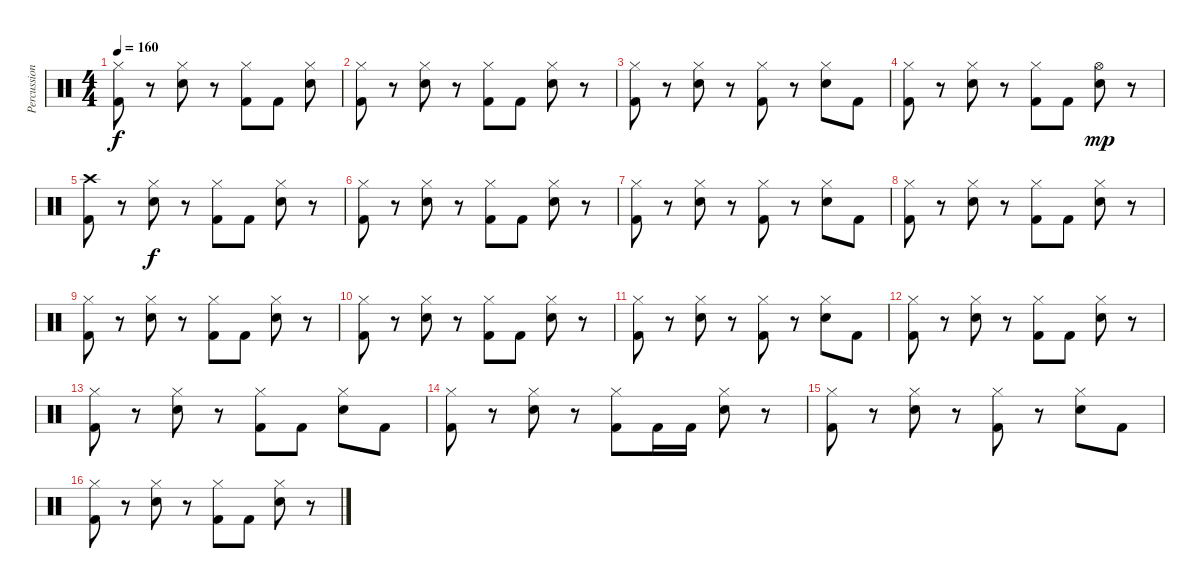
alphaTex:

\track ("Percussion" "Percussion") {instrument percussion}
\staff {score}
\articulation defaults
\ts (4 4)
\tempo 160
\clef neutral
\ks c
("Hi-Hat (closed)" "Kick (hit) 2").8{dy f} r.8 ("Hi-Hat (closed)" "Snare (hit) 2").8 r.8 ("Hi-Hat (closed)" "Kick (hit) 2").8 "Kick (hit) 2".8 ("Hi-Hat (closed)" "Snare (hit) 2").8 |
("Hi-Hat (closed)" "Kick (hit) 2").8 r.8 ("Hi-Hat (closed)" "Snare (hit) 2").8 r.8 ("Hi-Hat (closed)" "Kick (hit) 2").8 "Kick (hit) 2".8 ("Hi-Hat (closed)" "Snare (hit) 2").8 r.8 |
("Hi-Hat (closed)" "Kick (hit) 2").8 r.8 ("Hi-Hat (closed)" "Snare (hit) 2").8 r.8 ("Hi-Hat (closed)" "Kick (hit) 2").8 r.8 ("Hi-Hat (closed)" "Snare (hit) 2").8 "Kick (hit) 2".8 |
("Hi-Hat (closed)" "Kick (hit) 2").8 r.8 ("Hi-Hat (closed)" "Snare (hit) 2").8 r.8 ("Hi-Hat (closed)" "Kick (hit) 2").8 "Kick (hit) 2".8 ("Hi-Hat (open)" "Snare (hit) 2").8{dy mp} r.8 |
("Crash high (hit)" "Kick (hit) 2").8 r.8 ("Hi-Hat (closed)" "Snare (hit) 2").8{dy f} r.8 ("Hi-Hat (closed)" "Kick (hit) 2").8 "Kick (hit) 2".8 ("Hi-Hat (closed)" "Snare (hit) 2").8 r.8 |
("Hi-Hat (closed)" "Kick (hit) 2").8 r.8 ("Hi-Hat (closed)" "Snare (hit) 2").8 r.8 ("Hi-Hat (closed)" "Kick (hit) 2").8 "Kick (hit) 2".8 ("Hi-Hat (closed)" "Snare (hit) 2").8 r.8 |
("Hi-Hat (closed)" "Kick (hit) 2").8 r.8 ("Hi-Hat (closed)" "Snare (hit) 2").8 r.8 ("Hi-Hat (closed)" "Kick (hit) 2").8 r.8 ("Hi-Hat (closed)" "Snare (hit) 2").8 "Kick (hit) 2".8 |
("Hi-Hat (closed)" "Kick (hit) 2").8 r.8 ("Hi-Hat (closed)" "Snare (hit) 2").8 r.8 ("Hi-Hat (closed)" "Kick (hit) 2").8 "Kick (hit) 2".8 ("Hi-Hat (closed)" "Snare (hit) 2").8 r.8 |
("Hi-Hat (closed)" "Kick (hit) 2").8 r.8 ("Hi-Hat (closed)" "Snare (hit) 2").8 r.8 ("Hi-Hat (closed)" "Kick (hit) 2").8 "Kick (hit) 2".8 ("Hi-Hat (closed)" "Snare (hit) 2").8 r.8 |
("Hi-Hat (closed)" "Kick (hit) 2").8 r.8 ("Hi-Hat (closed)" "Snare (hit) 2").8 r.8 ("Hi-Hat (closed)" "Kick (hit) 2").8 "Kick (hit) 2".8 ("Hi-Hat (closed)" "Snare (hit) 2").8 r.8 |
("Hi-Hat (closed)" "Kick (hit) 2").8 r.8 ("Hi-Hat (closed)" "Snare (hit) 2").8 r.8 ("Hi-Hat (closed)" "Kick (hit) 2").8 r.8 ("Hi-Hat (closed)" "Snare (hit) 2").8 "Kick (hit) 2".8 |
("Hi-Hat (closed)" "Kick (hit) 2").8 r.8 ("Hi-Hat (closed)" "Snare (hit) 2").8 r.8 ("Hi-Hat (closed)" "Kick (hit) 2").8 "Kick (hit) 2".8 ("Hi-Hat (closed)" "Snare (hit) 2").8 r.8 |
("Hi-Hat (closed)" "Kick (hit) 2").8 r.8 ("Hi-Hat (closed)" "Snare (hit) 2").8 r.8 ("Hi-Hat (closed)" "Kick (hit) 2").8 "Kick (hit) 2".8 ("Hi-Hat (closed)" "Snare (hit) 2").8 "Kick (hit) 2".8 |
("Hi-Hat (closed)" "Kick (hit) 2").8 r.8 ("Hi-Hat (closed)" "Snare (hit) 2").8 r.8 ("Hi-Hat (closed)" "Kick (hit) 2").8 "Kick (hit) 2".16 "Kick (hit) 2".16 ("Hi-Hat (closed)" "Snare (hit) 2").8 r.8 |
("Hi-Hat (closed)" "Kick (hit) 2").8 r.8 ("Hi-Hat (closed)" "Snare (hit) 2").8 r.8 ("Hi-Hat (closed)" "Kick (hit) 2").8 r.8 ("Hi-Hat (closed)" "Snare (hit) 2").8 "Kick (hit) 2".8 |
("Hi-Hat (closed)" "Kick (hit) 2").8 r.8 ("Hi-Hat (closed)" "Snare (hit) 2").8 r.8 ("Hi-Hat (closed)" "Kick (hit) 2").8 "Kick (hit) 2".8 ("Hi-Hat (closed)" "Snare (hit) 2").8 r.8
